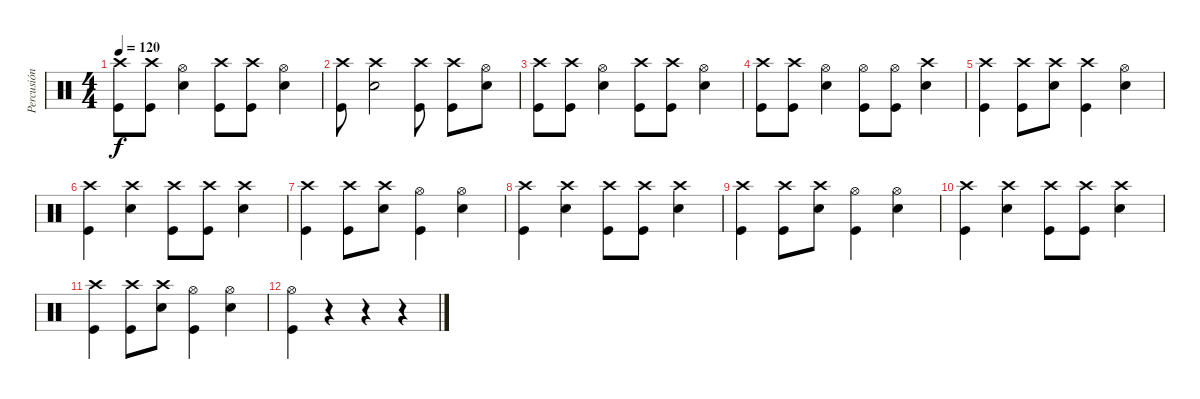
\track ("Percusión" "Percusión") {instrument percussion}
\staff {score}
\articulation defaults
\ts (4 4)
\tempo 120
\clef neutral
\ks c
("Crash high (hit)" "Kick (hit)").8{dy f} ("Crash high (hit)" "Kick (hit)").8 ("Hi-Hat (open)" "Snare (hit) 2").4 ("Crash high (hit)" "Kick (hit)").8 ("Crash high (hit)" "Kick (hit)").8 ("Hi-Hat (open)" "Snare (hit) 2").4 |
("Crash high (hit)" "Kick (hit)").8 ("Crash high (hit)" "Snare (hit) 2").2 ("Crash high (hit)" "Kick (hit)").8 ("Crash high (hit)" "Kick (hit)").8 ("Hi-Hat (open)" "Snare (hit) 2").8 |
("Crash high (hit)" "Kick (hit)").8 ("Crash high (hit)" "Kick (hit)").8 ("Hi-Hat (open)" "Snare (hit) 2").4 ("Crash high (hit)" "Kick (hit)").8 ("Crash high (hit)" "Kick (hit)").8 ("Hi-Hat (open)" "Snare (hit) 2").4 |
("Crash high (hit)" "Kick (hit)").8 ("Crash high (hit)" "Kick (hit)").8 ("Hi-Hat (open)" "Snare (hit) 2").4 ("Hi-Hat (open)" "Kick (hit)").8 ("Hi-Hat (open)" "Kick (hit)").8 ("Crash high (hit)" "Snare (hit) 2").4 |
("Crash high (hit)" "Kick (hit)").4 ("Crash high (hit)" "Kick (hit)").8 ("Crash high (hit)" "Snare (hit) 2").8 ("Crash high (hit)" "Kick (hit)").4 ("Hi-Hat (open)" "Snare (hit) 2").4 |
("Crash high (hit)" "Kick (hit)").4 ("Crash high (hit)" "Snare (hit) 2").4 ("Crash high (hit)" "Kick (hit)").8 ("Crash high (hit)" "Kick (hit)").8 ("Crash high (hit)" "Snare (hit) 2").4 |
("Crash high (hit)" "Kick (hit)").4 ("Crash high (hit)" "Kick (hit)").8 ("Crash high (hit)" "Snare (hit) 2").8 ("Hi-Hat (open)" "Kick (hit)").4 ("Hi-Hat (open)" "Snare (hit) 2").4 |
("Crash high (hit)" "Kick (hit)").4 ("Crash high (hit)" "Snare (hit) 2").4 ("Crash high (hit)" "Kick (hit)").8 ("Crash high (hit)" "Kick (hit)").8 ("Crash high (hit)" "Snare (hit) 2").4 |
("Crash high (hit)" "Kick (hit)").4 ("Crash high (hit)" "Kick (hit)").8 ("Crash high (hit)" "Snare (hit) 2").8 ("Hi-Hat (open)" "Kick (hit)").4 ("Hi-Hat (open)" "Snare (hit) 2").4 |
("Crash high (hit)" "Kick (hit)").4 ("Crash high (hit)" "Snare (hit) 2").4 ("Crash high (hit)" "Kick (hit)").8 ("Crash high (hit)" "Kick (hit)").8 ("Crash high (hit)" "Snare (hit) 2").4 |
("Crash high (hit)" "Kick (hit)").4 ("Crash high (hit)" "Kick (hit)").8 ("Crash high (hit)" "Snare (hit) 2").8 ("Hi-Hat (open)" "Kick (hit)").4 ("Hi-Hat (open)" "Snare (hit) 2").4 |
("Hi-Hat (open)" "Kick (hit)").4 r.4 r.4 r.4
